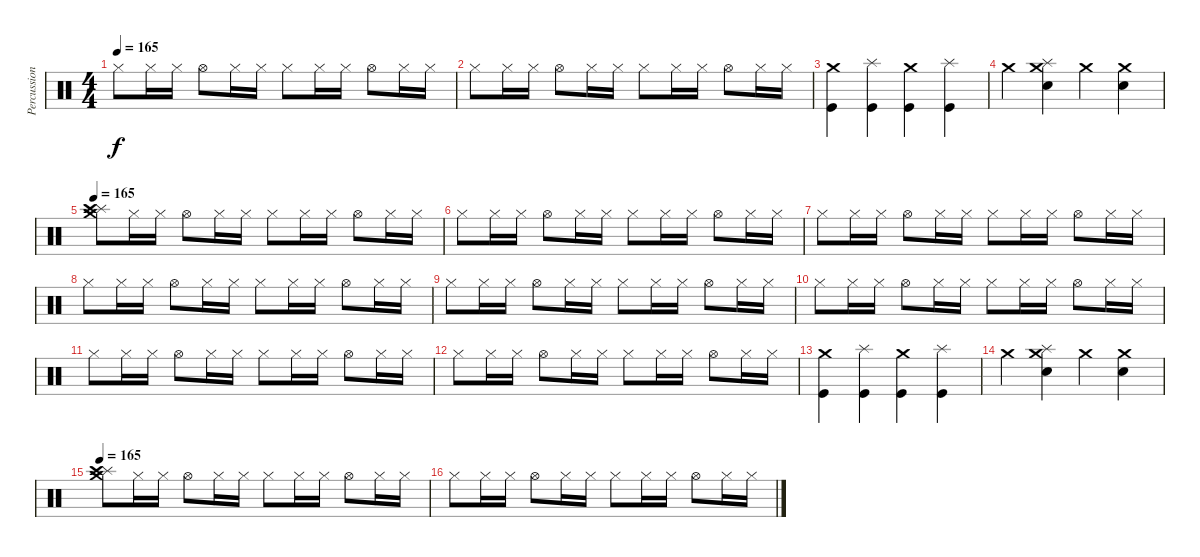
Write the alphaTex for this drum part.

\track ("Percussion" "Percussion") {instrument percussion}
\staff {score}
\articulation defaults
\ts (4 4)
\tempo 165
\clef neutral
\ks c "Hi-Hat (closed)".8{dy f} "Hi-Hat (closed)".16 "Hi-Hat (closed)".16 "Hi-Hat (open)".8 "Hi-Hat (closed)".16 "Hi-Hat (closed)".16 "Hi-Hat (closed)".8 "Hi-Hat (closed)".16 "Hi-Hat (closed)".16 "Hi-Hat (open)".8 "Hi-Hat (closed)".16 "Hi-Hat (closed)".16
|
"Hi-Hat (closed)".8 "Hi-Hat (closed)".16 "Hi-Hat (closed)".16 "Hi-Hat (open)".8 "Hi-Hat (closed)".16 "Hi-Hat (closed)".16 "Hi-Hat (closed)".8 "Hi-Hat (closed)".16 "Hi-Hat (closed)".16 "Hi-Hat (open)".8 "Hi-Hat (closed)".16 "Hi-Hat (closed)".16 |
("Crash medium (hit)" "Kick (hit)").4 ("Splash (hit)" "Kick (hit)").4 ("Crash medium (hit)" "Kick (hit)").4 ("Splash (hit)" "Kick (hit)").4 |
"Crash medium (hit)".4 ("Crash medium (hit)" "Splash (hit)" "Snare (hit) 2").4 "Crash medium (hit)".4 ("Crash medium (hit)" "Snare (hit) 2").4 |
\tempo 165
("Splash (hit)" "Crash medium (hit)" "Crash high (hit)").8 "Hi-Hat (closed)".16 "Hi-Hat (closed)".16 "Hi-Hat (open)".8 "Hi-Hat (closed)".16 "Hi-Hat (closed)".16 "Hi-Hat (closed)".8 "Hi-Hat (closed)".16 "Hi-Hat (closed)".16 "Hi-Hat (open)".8 "Hi-Hat (closed)".16 "Hi-Hat (closed)".16 |
"Hi-Hat (closed)".8 "Hi-Hat (closed)".16 "Hi-Hat (closed)".16 "Hi-Hat (open)".8 "Hi-Hat (closed)".16 "Hi-Hat (closed)".16 "Hi-Hat (closed)".8 "Hi-Hat (closed)".16 "Hi-Hat (closed)".16 "Hi-Hat (open)".8 "Hi-Hat (closed)".16 "Hi-Hat (closed)".16 |
"Hi-Hat (closed)".8 "Hi-Hat (closed)".16 "Hi-Hat (closed)".16 "Hi-Hat (open)".8 "Hi-Hat (closed)".16 "Hi-Hat (closed)".16 "Hi-Hat (closed)".8 "Hi-Hat (closed)".16 "Hi-Hat (closed)".16 "Hi-Hat (open)".8 "Hi-Hat (closed)".16 "Hi-Hat (closed)".16 |
"Hi-Hat (closed)".8 "Hi-Hat (closed)".16 "Hi-Hat (closed)".16 "Hi-Hat (open)".8 "Hi-Hat (closed)".16 "Hi-Hat (closed)".16 "Hi-Hat (closed)".8 "Hi-Hat (closed)".16 "Hi-Hat (closed)".16 "Hi-Hat (open)".8 "Hi-Hat (closed)".16 "Hi-Hat (closed)".16 |
"Hi-Hat (closed)".8 "Hi-Hat (closed)".16 "Hi-Hat (closed)".16 "Hi-Hat (open)".8 "Hi-Hat (closed)".16 "Hi-Hat (closed)".16 "Hi-Hat (closed)".8 "Hi-Hat (closed)".16 "Hi-Hat (closed)".16 "Hi-Hat (open)".8 "Hi-Hat (closed)".16 "Hi-Hat (closed)".16 |
"Hi-Hat (closed)".8 "Hi-Hat (closed)".16 "Hi-Hat (closed)".16 "Hi-Hat (open)".8 "Hi-Hat (closed)".16 "Hi-Hat (closed)".16 "Hi-Hat (closed)".8 "Hi-Hat (closed)".16 "Hi-Hat (closed)".16 "Hi-Hat (open)".8 "Hi-Hat (closed)".16 "Hi-Hat (closed)".16 |
"Hi-Hat (closed)".8 "Hi-Hat (closed)".16 "Hi-Hat (closed)".16 "Hi-Hat (open)".8 "Hi-Hat (closed)".16 "Hi-Hat (closed)".16 "Hi-Hat (closed)".8 "Hi-Hat (closed)".16 "Hi-Hat (closed)".16 "Hi-Hat (open)".8 "Hi-Hat (closed)".16 "Hi-Hat (closed)".16 |
"Hi-Hat (closed)".8 "Hi-Hat (closed)".16 "Hi-Hat (closed)".16 "Hi-Hat (open)".8 "Hi-Hat (closed)".16 "Hi-Hat (closed)".16 "Hi-Hat (closed)".8 "Hi-Hat (closed)".16 "Hi-Hat (closed)".16 "Hi-Hat (open)".8 "Hi-Hat (closed)".16 "Hi-Hat (closed)".16 |
("Crash medium (hit)" "Kick (hit)").4 ("Splash (hit)" "Kick (hit)").4 ("Crash medium (hit)" "Kick (hit)").4 ("Splash (hit)" "Kick (hit)").4 |
"Crash medium (hit)".4 ("Crash medium (hit)" "Splash (hit)" "Snare (hit) 2").4 "Crash medium (hit)".4 ("Crash medium (hit)" "Snare (hit) 2").4 |
\tempo 165
("Splash (hit)" "Crash medium (hit)" "Crash high (hit)").8 "Hi-Hat (closed)".16 "Hi-Hat (closed)".16 "Hi-Hat (open)".8 "Hi-Hat (closed)".16 "Hi-Hat (closed)".16 "Hi-Hat (closed)".8 "Hi-Hat (closed)".16 "Hi-Hat (closed)".16 "Hi-Hat (open)".8 "Hi-Hat (closed)".16 "Hi-Hat (closed)".16 |
"Hi-Hat (closed)".8 "Hi-Hat (closed)".16 "Hi-Hat (closed)".16 "Hi-Hat (open)".8 "Hi-Hat (closed)".16 "Hi-Hat (closed)".16 "Hi-Hat (closed)".8 "Hi-Hat (closed)".16 "Hi-Hat (closed)".16 "Hi-Hat (open)".8 "Hi-Hat (closed)".16 "Hi-Hat (closed)".16
